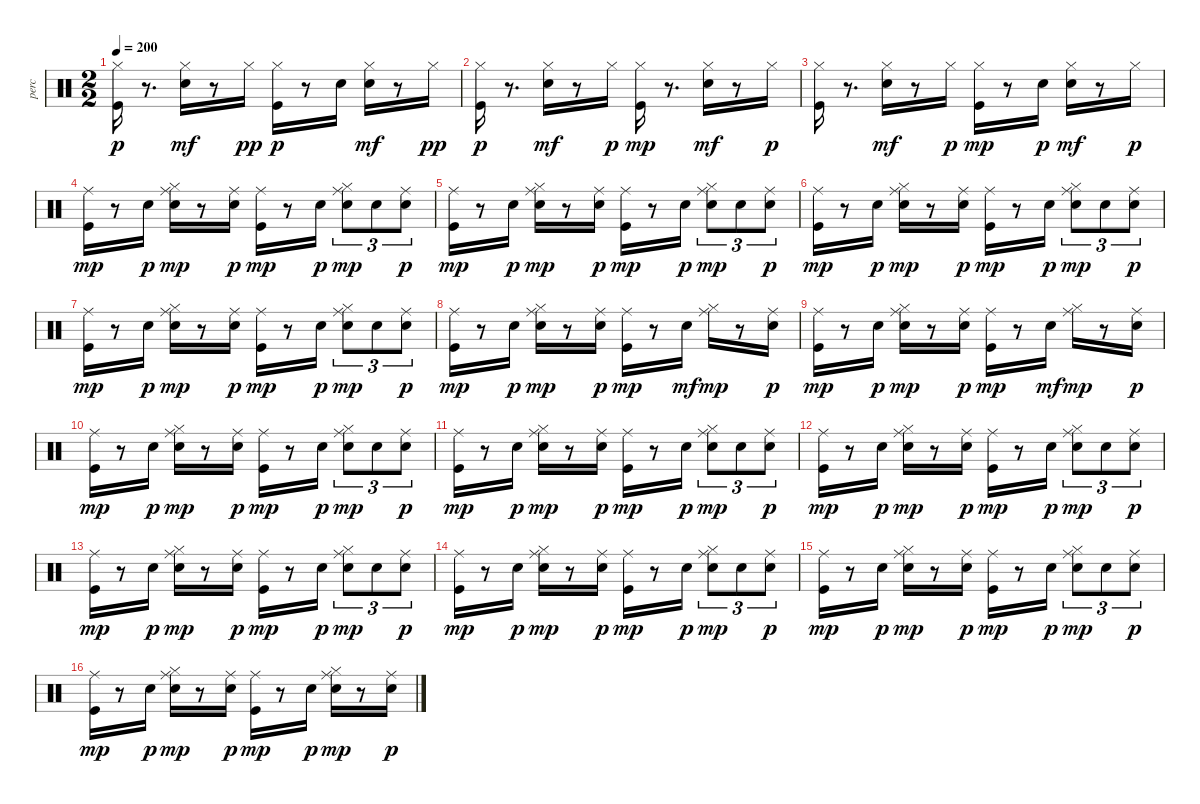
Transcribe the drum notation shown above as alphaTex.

\track ("perc" "perc") {instrument percussion}
\staff {score}
\articulation defaults
\ts (2 2)
\tempo 200
\clef neutral
\ks c
("Kick (hit)" "Hi-Hat (closed)").16{dy p} r.8{d} ("Snare (hit) 2" "Hi-Hat (closed)").16{dy mf} r.8 "Hi-Hat (closed)".16{dy pp} ("Kick (hit)" "Hi-Hat (closed)").16{dy p} r.8 "Snare (hit) 2".16 ("Snare (hit) 2" "Hi-Hat (closed)").16{dy mf} r.8 "Hi-Hat (closed)".16{dy pp} |
("Kick (hit)" "Hi-Hat (closed)").16{dy p} r.8{d} ("Snare (hit) 2" "Hi-Hat (closed)").16{dy mf} r.8 "Hi-Hat (closed)".16{dy p} ("Kick (hit)" "Hi-Hat (closed)").16{dy mp} r.8{d} ("Snare (hit) 2" "Hi-Hat (closed)").16{dy mf} r.8 "Hi-Hat (closed)".16{dy p} |
("Kick (hit)" "Hi-Hat (closed)").16 r.8{d} ("Snare (hit) 2" "Hi-Hat (closed)").16{dy mf} r.8 "Hi-Hat (closed)".16{dy p} ("Kick (hit)" "Hi-Hat (closed)").16{dy mp} r.8 "Snare (hit) 2".16{dy p} ("Snare (hit) 2" "Hi-Hat (closed)").16{dy mf} r.8 "Hi-Hat (closed)".16{dy p} |
("Kick (hit)" "Ride (middle)").16{dy mp} r.8 "Snare (hit) 2".16{dy p} ("Snare (hit) 2" "Hi-Hat (closed)" "Ride (middle)").16{dy mp} r.8 ("Snare (hit) 2" "Ride (middle)").16{dy p} ("Kick (hit)" "Ride (middle)").16{dy mp} r.8 "Snare (hit) 2".16{dy p} ("Snare (hit) 2" "Hi-Hat (closed)" "Ride (middle)").8{tu (3 2) dy mp} "Snare (hit) 2".8{tu (3 2)} ("Snare (hit) 2" "Ride (middle)").8{tu (3 2) dy p} |
("Kick (hit)" "Ride (middle)").16{dy mp} r.8 "Snare (hit) 2".16{dy p} ("Snare (hit) 2" "Hi-Hat (closed)" "Ride (middle)").16{dy mp} r.8 ("Snare (hit) 2" "Ride (middle)").16{dy p} ("Kick (hit)" "Ride (middle)").16{dy mp} r.8 "Snare (hit) 2".16{dy p} ("Snare (hit) 2" "Hi-Hat (closed)" "Ride (middle)").8{tu (3 2) dy mp} "Snare (hit) 2".8{tu (3 2)} ("Snare (hit) 2" "Ride (middle)").8{tu (3 2) dy p} |
("Kick (hit)" "Ride (middle)").16{dy mp} r.8 "Snare (hit) 2".16{dy p} ("Snare (hit) 2" "Hi-Hat (closed)" "Ride (middle)").16{dy mp} r.8 ("Snare (hit) 2" "Ride (middle)").16{dy p} ("Kick (hit)" "Ride (middle)").16{dy mp} r.8 "Snare (hit) 2".16{dy p} ("Snare (hit) 2" "Hi-Hat (closed)" "Ride (middle)").8{tu (3 2) dy mp} "Snare (hit) 2".8{tu (3 2)} ("Snare (hit) 2" "Ride (middle)").8{tu (3 2) dy p} |
("Kick (hit)" "Ride (middle)").16{dy mp} r.8 "Snare (hit) 2".16{dy p} ("Snare (hit) 2" "Hi-Hat (closed)" "Ride (middle)").16{dy mp} r.8 ("Snare (hit) 2" "Ride (middle)").16{dy p} ("Kick (hit)" "Ride (middle)").16{dy mp} r.8 "Snare (hit) 2".16{dy p} ("Snare (hit) 2" "Hi-Hat (closed)" "Ride (middle)").8{tu (3 2) dy mp} "Snare (hit) 2".8{tu (3 2)} ("Snare (hit) 2" "Ride (middle)").8{tu (3 2) dy p} |
("Kick (hit)" "Ride (middle)").16{dy mp} r.8 "Snare (hit) 2".16{dy p} ("Snare (hit) 2" "Hi-Hat (closed)" "Ride (middle)").16{dy mp} r.8 ("Snare (hit) 2" "Ride (middle)").16{dy p} ("Kick (hit)" "Ride (middle)").16{dy mp} r.8 "Snare (hit) 2".16{dy mf} ("Hi-Hat (closed)" "Ride (middle)").16{dy mp} r.8 ("Snare (hit) 2" "Ride (middle)").16{dy p} |
("Kick (hit)" "Ride (middle)").16{dy mp} r.8 "Snare (hit) 2".16{dy p} ("Snare (hit) 2" "Hi-Hat (closed)" "Ride (middle)").16{dy mp} r.8 ("Snare (hit) 2" "Ride (middle)").16{dy p} ("Kick (hit)" "Ride (middle)").16{dy mp} r.8 "Snare (hit) 2".16{dy mf} ("Hi-Hat (closed)" "Ride (middle)").16{dy mp} r.8 ("Snare (hit) 2" "Ride (middle)").16{dy p} |
("Kick (hit)" "Ride (middle)").16{dy mp} r.8 "Snare (hit) 2".16{dy p} ("Snare (hit) 2" "Hi-Hat (closed)" "Ride (middle)").16{dy mp} r.8 ("Snare (hit) 2" "Ride (middle)").16{dy p} ("Kick (hit)" "Ride (middle)").16{dy mp} r.8 "Snare (hit) 2".16{dy p} ("Snare (hit) 2" "Hi-Hat (closed)" "Ride (middle)").8{tu (3 2) dy mp} "Snare (hit) 2".8{tu (3 2)} ("Snare (hit) 2" "Ride (middle)").8{tu (3 2) dy p} |
("Kick (hit)" "Ride (middle)").16{dy mp} r.8 "Snare (hit) 2".16{dy p} ("Snare (hit) 2" "Hi-Hat (closed)" "Ride (middle)").16{dy mp} r.8 ("Snare (hit) 2" "Ride (middle)").16{dy p} ("Kick (hit)" "Ride (middle)").16{dy mp} r.8 "Snare (hit) 2".16{dy p} ("Snare (hit) 2" "Hi-Hat (closed)" "Ride (middle)").8{tu (3 2) dy mp} "Snare (hit) 2".8{tu (3 2)} ("Snare (hit) 2" "Ride (middle)").8{tu (3 2) dy p} |
("Kick (hit)" "Ride (middle)").16{dy mp} r.8 "Snare (hit) 2".16{dy p} ("Snare (hit) 2" "Hi-Hat (closed)" "Ride (middle)").16{dy mp} r.8 ("Snare (hit) 2" "Ride (middle)").16{dy p} ("Kick (hit)" "Ride (middle)").16{dy mp} r.8 "Snare (hit) 2".16{dy p} ("Snare (hit) 2" "Hi-Hat (closed)" "Ride (middle)").8{tu (3 2) dy mp} "Snare (hit) 2".8{tu (3 2)} ("Snare (hit) 2" "Ride (middle)").8{tu (3 2) dy p} |
("Kick (hit)" "Ride (middle)").16{dy mp} r.8 "Snare (hit) 2".16{dy p} ("Snare (hit) 2" "Hi-Hat (closed)" "Ride (middle)").16{dy mp} r.8 ("Snare (hit) 2" "Ride (middle)").16{dy p} ("Kick (hit)" "Ride (middle)").16{dy mp} r.8 "Snare (hit) 2".16{dy p} ("Snare (hit) 2" "Hi-Hat (closed)" "Ride (middle)").8{tu (3 2) dy mp} "Snare (hit) 2".8{tu (3 2)} ("Snare (hit) 2" "Ride (middle)").8{tu (3 2) dy p} |
("Kick (hit)" "Ride (middle)").16{dy mp} r.8 "Snare (hit) 2".16{dy p} ("Snare (hit) 2" "Hi-Hat (closed)" "Ride (middle)").16{dy mp} r.8 ("Snare (hit) 2" "Ride (middle)").16{dy p} ("Kick (hit)" "Ride (middle)").16{dy mp} r.8 "Snare (hit) 2".16{dy p} ("Snare (hit) 2" "Hi-Hat (closed)" "Ride (middle)").8{tu (3 2) dy mp} "Snare (hit) 2".8{tu (3 2)} ("Snare (hit) 2" "Ride (middle)").8{tu (3 2) dy p} |
("Kick (hit)" "Ride (middle)").16{dy mp} r.8 "Snare (hit) 2".16{dy p} ("Snare (hit) 2" "Hi-Hat (closed)" "Ride (middle)").16{dy mp} r.8 ("Snare (hit) 2" "Ride (middle)").16{dy p} ("Kick (hit)" "Ride (middle)").16{dy mp} r.8 "Snare (hit) 2".16{dy p} ("Snare (hit) 2" "Hi-Hat (closed)" "Ride (middle)").8{tu (3 2) dy mp} "Snare (hit) 2".8{tu (3 2)} ("Snare (hit) 2" "Ride (middle)").8{tu (3 2) dy p} |
("Kick (hit)" "Ride (middle)").16{dy mp} r.8 "Snare (hit) 2".16{dy p} ("Snare (hit) 2" "Hi-Hat (closed)" "Ride (middle)").16{dy mp} r.8 ("Snare (hit) 2" "Ride (middle)").16{dy p} ("Kick (hit)" "Ride (middle)").16{dy mp} r.8 "Snare (hit) 2".16{dy p} ("Snare (hit) 2" "Hi-Hat (closed)" "Ride (middle)").16{dy mp} r.8 ("Snare (hit) 2" "Ride (middle)").16{dy p}
